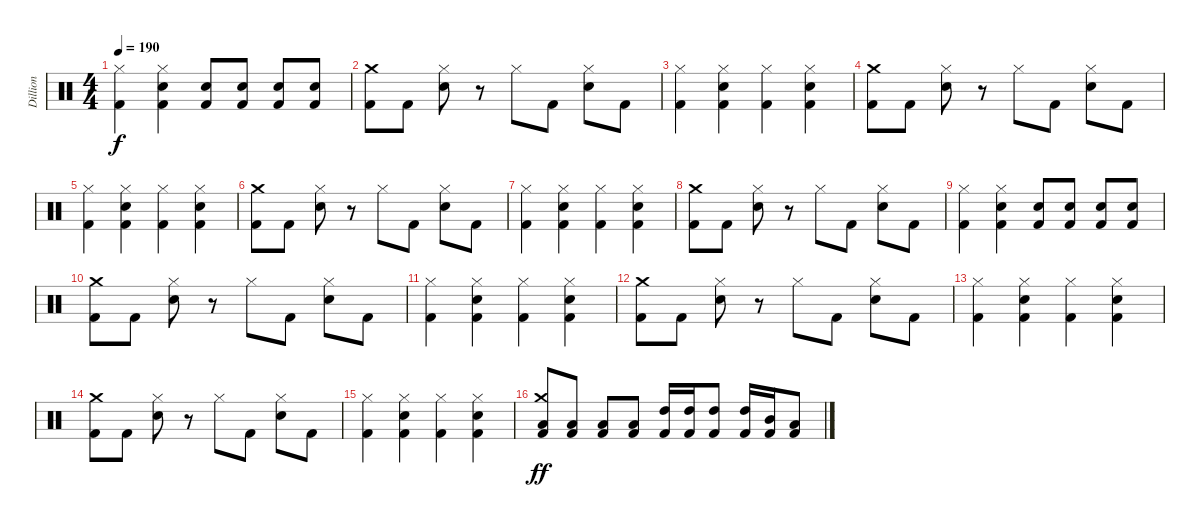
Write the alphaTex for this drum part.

\track ("Dillion" "Dillion") {instrument percussion}
\staff {score}
\articulation defaults
\ts (4 4)
\tempo 190
\clef neutral
\ks c
("Hi-Hat (closed)" "Kick (hit) 2").4{dy f} ("Hi-Hat (closed)" "Electric Snare (hit)" "Kick (hit) 2").4 ("Electric Snare (hit)" "Kick (hit) 2").8 ("Electric Snare (hit)" "Kick (hit) 2").8 ("Electric Snare (hit)" "Kick (hit) 2").8 ("Electric Snare (hit)" "Kick (hit) 2").8 |
("Crash medium (hit)" "Kick (hit) 2").8 "Kick (hit) 2".8 ("Hi-Hat (closed)" "Electric Snare (hit)").8 r.8 "Hi-Hat (closed)".8 "Kick (hit) 2".8 ("Hi-Hat (closed)" "Electric Snare (hit)").8 "Kick (hit) 2".8 |
("Hi-Hat (closed)" "Kick (hit) 2").4 ("Hi-Hat (closed)" "Electric Snare (hit)" "Kick (hit) 2").4 ("Hi-Hat (closed)" "Kick (hit) 2").4 ("Hi-Hat (closed)" "Electric Snare (hit)" "Kick (hit) 2").4 |
("Crash medium (hit)" "Kick (hit) 2").8 "Kick (hit) 2".8 ("Hi-Hat (closed)" "Electric Snare (hit)").8 r.8 "Hi-Hat (closed)".8 "Kick (hit) 2".8 ("Hi-Hat (closed)" "Electric Snare (hit)").8 "Kick (hit) 2".8 |
("Hi-Hat (closed)" "Kick (hit) 2").4 ("Hi-Hat (closed)" "Electric Snare (hit)" "Kick (hit) 2").4 ("Hi-Hat (closed)" "Kick (hit) 2").4 ("Hi-Hat (closed)" "Electric Snare (hit)" "Kick (hit) 2").4 |
("Crash medium (hit)" "Kick (hit) 2").8 "Kick (hit) 2".8 ("Hi-Hat (closed)" "Electric Snare (hit)").8 r.8 "Hi-Hat (closed)".8 "Kick (hit) 2".8 ("Hi-Hat (closed)" "Electric Snare (hit)").8 "Kick (hit) 2".8 |
("Hi-Hat (closed)" "Kick (hit) 2").4 ("Hi-Hat (closed)" "Electric Snare (hit)" "Kick (hit) 2").4 ("Hi-Hat (closed)" "Kick (hit) 2").4 ("Hi-Hat (closed)" "Electric Snare (hit)" "Kick (hit) 2").4 |
("Crash medium (hit)" "Kick (hit) 2").8 "Kick (hit) 2".8 ("Hi-Hat (closed)" "Electric Snare (hit)").8 r.8 "Hi-Hat (closed)".8 "Kick (hit) 2".8 ("Hi-Hat (closed)" "Electric Snare (hit)").8 "Kick (hit) 2".8 |
("Hi-Hat (closed)" "Kick (hit) 2").4 ("Hi-Hat (closed)" "Electric Snare (hit)" "Kick (hit) 2").4 ("Electric Snare (hit)" "Kick (hit) 2").8 ("Electric Snare (hit)" "Kick (hit) 2").8 ("Electric Snare (hit)" "Kick (hit) 2").8 ("Electric Snare (hit)" "Kick (hit) 2").8 |
("Crash medium (hit)" "Kick (hit) 2").8 "Kick (hit) 2".8 ("Hi-Hat (closed)" "Electric Snare (hit)").8 r.8 "Hi-Hat (closed)".8 "Kick (hit) 2".8 ("Hi-Hat (closed)" "Electric Snare (hit)").8 "Kick (hit) 2".8 |
("Hi-Hat (closed)" "Kick (hit) 2").4 ("Hi-Hat (closed)" "Electric Snare (hit)" "Kick (hit) 2").4 ("Hi-Hat (closed)" "Kick (hit) 2").4 ("Hi-Hat (closed)" "Electric Snare (hit)" "Kick (hit) 2").4 |
("Crash medium (hit)" "Kick (hit) 2").8 "Kick (hit) 2".8 ("Hi-Hat (closed)" "Electric Snare (hit)").8 r.8 "Hi-Hat (closed)".8 "Kick (hit) 2".8 ("Hi-Hat (closed)" "Electric Snare (hit)").8 "Kick (hit) 2".8 |
("Hi-Hat (closed)" "Kick (hit) 2").4 ("Hi-Hat (closed)" "Electric Snare (hit)" "Kick (hit) 2").4 ("Hi-Hat (closed)" "Kick (hit) 2").4 ("Hi-Hat (closed)" "Electric Snare (hit)" "Kick (hit) 2").4 |
("Crash medium (hit)" "Kick (hit) 2").8 "Kick (hit) 2".8 ("Hi-Hat (closed)" "Electric Snare (hit)").8 r.8 "Hi-Hat (closed)".8 "Kick (hit) 2".8 ("Hi-Hat (closed)" "Electric Snare (hit)").8 "Kick (hit) 2".8 |
("Hi-Hat (closed)" "Kick (hit) 2").4 ("Hi-Hat (closed)" "Electric Snare (hit)" "Kick (hit) 2").4 ("Hi-Hat (closed)" "Kick (hit) 2").4 ("Hi-Hat (closed)" "Electric Snare (hit)" "Kick (hit) 2").4 |
("Crash medium (hit)" "Low Tom (hit)" "Kick (hit) 2").8{dy ff} ("Low Tom (hit)" "Kick (hit) 2").8 ("Low Tom (hit)" "Kick (hit) 2").8 ("Low Tom (hit)" "Kick (hit) 2").8 ("High Tom (hit)" "Kick (hit) 2").16 ("High Tom (hit)" "Kick (hit) 2").16 ("High Tom (hit)" "Kick (hit) 2").8 ("High Tom (hit)" "Kick (hit) 2").16 ("Mid Tom (hit)" "Kick (hit) 2").16 ("Low Tom (hit)" "Kick (hit) 2").8
